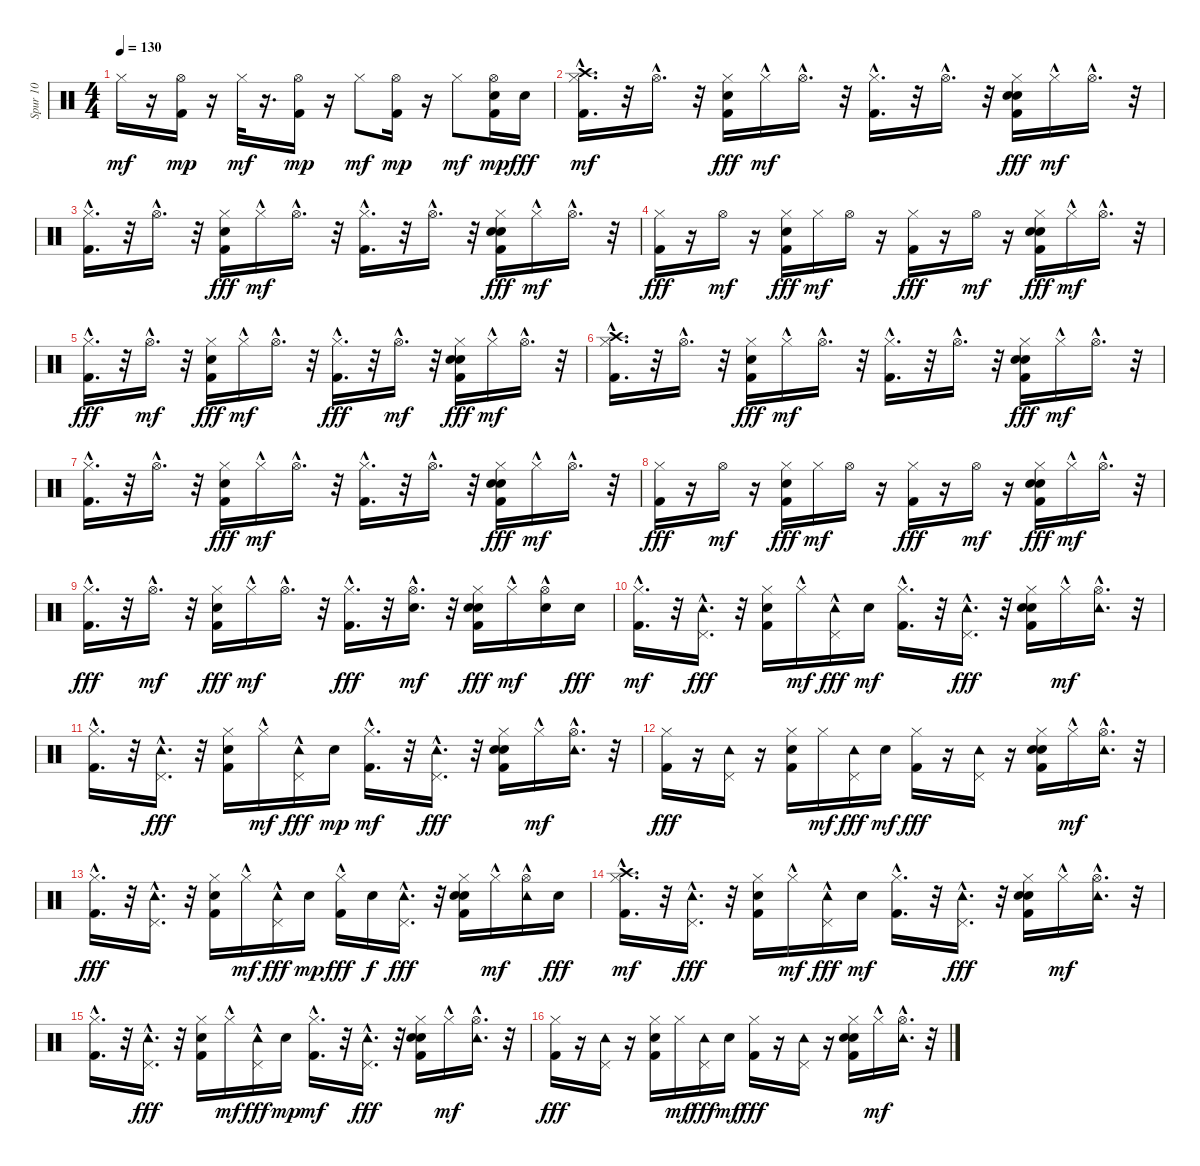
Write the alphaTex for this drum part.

\track ("Spur 10" "Spur 10") {instrument percussion}
\staff {score}
\articulation defaults
\ts (4 4)
\tempo 130
\clef neutral
\ks c "Hi-Hat (closed)".16{dy mf}
r.16 ("Kick (hit) 2" "Hi-Hat (open)").16{dy mp} r.16 "Hi-Hat (closed)".32{dy mf} r.16{d} ("Kick (hit) 2" "Hi-Hat (open)").16{dy mp} r.16 "Hi-Hat (closed)".8{dy mf} ("Kick (hit) 2" "Hi-Hat (open)").16{dy mp} r.16 "Hi-Hat (closed)".8{dy mf} ("Snare (hit) 2" "Kick (hit) 2" "Hi-Hat (open)").16{dy mp} "Snare (hit) 2".16{dy fff} |
("Crash high (hit)" "Kick (hit) 2" "Hi-Hat (closed)"{hac}).16{d dy mf} r.32 "Hi-Hat (open)"{hac}.16{d} r.32 ("Kick (hit) 2" "Hi-Hat (closed)" "Snare (hit) 2").16{dy fff} "Hi-Hat (closed)"{hac}.16{dy mf} "Hi-Hat (open)"{hac}.16{d} r.32 ("Kick (hit) 2" "Hi-Hat (closed)"{hac}).16{d} r.32 "Hi-Hat (open)"{hac}.16{d} r.32 ("Kick (hit) 2" "Hi-Hat (closed)" "Hand Clap (hit)" "Snare (hit) 2").16{dy fff} "Hi-Hat (closed)"{hac}.16{dy mf} "Hi-Hat (open)"{hac}.16{d} r.32 |
("Kick (hit) 2" "Hi-Hat (closed)"{hac}).16{d} r.32 "Hi-Hat (open)"{hac}.16{d} r.32 ("Hi-Hat (closed)" "Snare (hit) 2" "Kick (hit) 2").16{dy fff} "Hi-Hat (closed)"{hac}.16{dy mf} "Hi-Hat (open)"{hac}.16{d} r.32 ("Kick (hit) 2" "Hi-Hat (closed)"{hac}).16{d} r.32 "Hi-Hat (open)"{hac}.16{d} r.32 ("Hi-Hat (closed)" "Kick (hit) 2" "Snare (hit) 2" "Hand Clap (hit)").16{dy fff} "Hi-Hat (closed)"{hac}.16{dy mf} "Hi-Hat (open)"{hac}.16{d} r.32 |
("Hi-Hat (closed)" "Kick (hit) 2").16{dy fff} r.16 "Hi-Hat (open)".16{dy mf} r.16 ("Snare (hit) 2" "Hi-Hat (closed)" "Kick (hit) 2").16{dy fff} "Hi-Hat (closed)".16{dy mf} "Hi-Hat (open)".16 r.16 ("Hi-Hat (closed)" "Kick (hit) 2").16{dy fff} r.16 "Hi-Hat (open)".16{dy mf} r.16 ("Snare (hit) 2" "Hand Clap (hit)" "Hi-Hat (closed)" "Kick (hit) 2").16{dy fff} "Hi-Hat (closed)"{hac}.16{dy mf} "Hi-Hat (open)"{hac}.16{d} r.32 |
("Hi-Hat (closed)"{hac} "Kick (hit) 2").16{d dy fff} r.32 "Hi-Hat (open)"{hac}.16{d dy mf} r.32 ("Hi-Hat (closed)" "Snare (hit) 2" "Kick (hit) 2").16{dy fff} "Hi-Hat (closed)"{hac}.16{dy mf} "Hi-Hat (open)"{hac}.16{d} r.32 ("Hi-Hat (closed)"{hac} "Kick (hit) 2").16{d dy fff} r.32 "Hi-Hat (open)"{hac}.16{d dy mf} r.32 ("Hand Clap (hit)" "Snare (hit) 2" "Hi-Hat (closed)" "Kick (hit) 2").16{dy fff} "Hi-Hat (closed)"{hac}.16{dy mf} "Hi-Hat (open)"{hac}.16{d} r.32 |
("Crash high (hit)" "Kick (hit) 2" "Hi-Hat (closed)"{hac}).16{d} r.32 "Hi-Hat (open)"{hac}.16{d} r.32 ("Kick (hit) 2" "Hi-Hat (closed)" "Snare (hit) 2").16{dy fff} "Hi-Hat (closed)"{hac}.16{dy mf} "Hi-Hat (open)"{hac}.16{d} r.32 ("Kick (hit) 2" "Hi-Hat (closed)"{hac}).16{d} r.32 "Hi-Hat (open)"{hac}.16{d} r.32 ("Kick (hit) 2" "Hi-Hat (closed)" "Hand Clap (hit)" "Snare (hit) 2").16{dy fff} "Hi-Hat (closed)"{hac}.16{dy mf} "Hi-Hat (open)"{hac}.16{d} r.32 |
("Kick (hit) 2" "Hi-Hat (closed)"{hac}).16{d} r.32 "Hi-Hat (open)"{hac}.16{d} r.32 ("Hi-Hat (closed)" "Snare (hit) 2" "Kick (hit) 2").16{dy fff} "Hi-Hat (closed)"{hac}.16{dy mf} "Hi-Hat (open)"{hac}.16{d} r.32 ("Kick (hit) 2" "Hi-Hat (closed)"{hac}).16{d} r.32 "Hi-Hat (open)"{hac}.16{d} r.32 ("Hi-Hat (closed)" "Kick (hit) 2" "Snare (hit) 2" "Hand Clap (hit)").16{dy fff} "Hi-Hat (closed)"{hac}.16{dy mf} "Hi-Hat (open)"{hac}.16{d} r.32 |
("Hi-Hat (closed)" "Kick (hit) 2").16{dy fff} r.16 "Hi-Hat (open)".16{dy mf} r.16 ("Snare (hit) 2" "Hi-Hat (closed)" "Kick (hit) 2").16{dy fff} "Hi-Hat (closed)".16{dy mf} "Hi-Hat (open)".16 r.16 ("Hi-Hat (closed)" "Kick (hit) 2").16{dy fff} r.16 "Hi-Hat (open)".16{dy mf} r.16 ("Snare (hit) 2" "Hand Clap (hit)" "Hi-Hat (closed)" "Kick (hit) 2").16{dy fff} "Hi-Hat (closed)"{hac}.16{dy mf} "Hi-Hat (open)"{hac}.16{d} r.32 |
("Hi-Hat (closed)"{hac} "Kick (hit) 2").16{d dy fff} r.32 "Hi-Hat (open)"{hac}.16{d dy mf} r.32 ("Hi-Hat (closed)" "Snare (hit) 2" "Kick (hit) 2").16{dy fff} "Hi-Hat (closed)"{hac}.16{dy mf} "Hi-Hat (open)"{hac}.16{d} r.32 ("Hi-Hat (closed)"{hac} "Kick (hit) 2").16{d dy fff} r.32 ("Snare (hit) 2" "Hi-Hat (open)"{hac}).16{d dy mf} r.32 ("Hand Clap (hit)" "Snare (hit) 2" "Hi-Hat (closed)" "Kick (hit) 2").16{dy fff} "Hi-Hat (closed)"{hac}.16{dy mf} ("Snare (hit) 2" "Hi-Hat (open)"{hac}).16 "Snare (hit) 2".16{dy fff} |
("Kick (hit) 2" "Hi-Hat (closed)"{hac}).16{d dy mf} r.32 ("Tambourine (hit)"{hac} "Pedal Hi-Hat (hit)"{hac}).16{d dy fff} r.32 ("Kick (hit) 2" "Hi-Hat (closed)" "Snare (hit) 2").16 "Hi-Hat (closed)"{hac}.16{dy mf} ("Tambourine (hit)"{hac} "Pedal Hi-Hat (hit)"{hac}).16{dy fff} "Electric Snare (hit)".16{dy mf} ("Kick (hit) 2" "Hi-Hat (closed)"{hac}).16{d} r.32 ("Tambourine (hit)"{hac} "Pedal Hi-Hat (hit)"{hac}).16{d dy fff} r.32 ("Kick (hit) 2" "Hi-Hat (closed)" "Hand Clap (hit)" "Snare (hit) 2").16 "Hi-Hat (closed)"{hac}.16{dy mf} ("Tambourine (hit)"{hac} "Hi-Hat (open)"{hac}).16{d} r.32 |
("Kick (hit) 2" "Hi-Hat (closed)"{hac}).16{d} r.32 ("Tambourine (hit)"{hac} "Pedal Hi-Hat (hit)"{hac}).16{d dy fff} r.32 ("Hi-Hat (closed)" "Snare (hit) 2" "Kick (hit) 2").16 "Hi-Hat (closed)"{hac}.16{dy mf} ("Tambourine (hit)"{hac} "Pedal Hi-Hat (hit)"{hac}).16{dy fff} "Electric Snare (hit)".16{dy mp} ("Kick (hit) 2" "Hi-Hat (closed)"{hac}).16{d dy mf} r.32 ("Tambourine (hit)"{hac} "Pedal Hi-Hat (hit)"{hac}).16{d dy fff} r.32 ("Hi-Hat (closed)" "Kick (hit) 2" "Snare (hit) 2" "Hand Clap (hit)").16 "Hi-Hat (closed)"{hac}.16{dy mf} ("Tambourine (hit)"{hac} "Hi-Hat (open)"{hac}).16{d} r.32 |
("Hi-Hat (closed)" "Kick (hit) 2").16{dy fff} r.16 ("Tambourine (hit)" "Pedal Hi-Hat (hit)").16 r.16 ("Snare (hit) 2" "Hi-Hat (closed)" "Kick (hit) 2").16 "Hi-Hat (closed)".16{dy mf} ("Tambourine (hit)" "Pedal Hi-Hat (hit)").16{dy fff} "Electric Snare (hit)".16{dy mf} ("Hi-Hat (closed)" "Kick (hit) 2").16{dy fff} r.16 ("Tambourine (hit)" "Pedal Hi-Hat (hit)").16 r.16 ("Snare (hit) 2" "Hand Clap (hit)" "Hi-Hat (closed)" "Kick (hit) 2").16 "Hi-Hat (closed)"{hac}.16{dy mf} ("Tambourine (hit)" "Hi-Hat (open)"{hac}).16{d} r.32 |
("Hi-Hat (closed)"{hac} "Kick (hit) 2").16{d dy fff} r.32 ("Tambourine (hit)"{hac} "Pedal Hi-Hat (hit)"{hac}).16{d} r.32 ("Hi-Hat (closed)" "Snare (hit) 2" "Kick (hit) 2").16 "Hi-Hat (closed)"{hac}.16{dy mf} ("Tambourine (hit)"{hac} "Pedal Hi-Hat (hit)"{hac}).16{dy fff} "Electric Snare (hit)".16{dy mp} ("Hi-Hat (closed)"{hac} "Kick (hit) 2").16{dy fff} "Snare (hit) 2".16{dy f} ("Tambourine (hit)"{hac} "Pedal Hi-Hat (hit)"{hac}).16{d dy fff} r.32 ("Hand Clap (hit)" "Snare (hit) 2" "Hi-Hat (closed)" "Kick (hit) 2").16 "Hi-Hat (closed)"{hac}.16{dy mf} ("Tambourine (hit)"{hac} "Hi-Hat (open)"{hac}).16 "Snare (hit) 2".16{dy fff} |
("Crash high (hit)" "Kick (hit) 2" "Hi-Hat (closed)"{hac}).16{d dy mf} r.32 ("Tambourine (hit)"{hac} "Pedal Hi-Hat (hit)"{hac}).16{d dy fff} r.32 ("Kick (hit) 2" "Hi-Hat (closed)" "Snare (hit) 2").16 "Hi-Hat (closed)"{hac}.16{dy mf} ("Tambourine (hit)"{hac} "Pedal Hi-Hat (hit)"{hac}).16{dy fff} "Electric Snare (hit)".16{dy mf} ("Kick (hit) 2" "Hi-Hat (closed)"{hac}).16{d} r.32 ("Tambourine (hit)"{hac} "Pedal Hi-Hat (hit)"{hac}).16{d dy fff} r.32 ("Kick (hit) 2" "Hi-Hat (closed)" "Hand Clap (hit)" "Snare (hit) 2").16 "Hi-Hat (closed)"{hac}.16{dy mf} ("Tambourine (hit)"{hac} "Hi-Hat (open)"{hac}).16{d} r.32 |
("Kick (hit) 2" "Hi-Hat (closed)"{hac}).16{d} r.32 ("Tambourine (hit)"{hac} "Pedal Hi-Hat (hit)"{hac}).16{d dy fff} r.32 ("Hi-Hat (closed)" "Snare (hit) 2" "Kick (hit) 2").16 "Hi-Hat (closed)"{hac}.16{dy mf} ("Tambourine (hit)"{hac} "Pedal Hi-Hat (hit)"{hac}).16{dy fff} "Electric Snare (hit)".16{dy mp} ("Kick (hit) 2" "Hi-Hat (closed)"{hac}).16{d dy mf} r.32 ("Tambourine (hit)"{hac} "Pedal Hi-Hat (hit)"{hac}).16{d dy fff} r.32 ("Hi-Hat (closed)" "Kick (hit) 2" "Snare (hit) 2" "Hand Clap (hit)").16 "Hi-Hat (closed)"{hac}.16{dy mf} ("Tambourine (hit)"{hac} "Hi-Hat (open)"{hac}).16{d} r.32 |
("Hi-Hat (closed)" "Kick (hit) 2").16{dy fff} r.16 ("Tambourine (hit)" "Pedal Hi-Hat (hit)").16 r.16 ("Snare (hit) 2" "Hi-Hat (closed)" "Kick (hit) 2").16 "Hi-Hat (closed)".16{dy mf} ("Tambourine (hit)" "Pedal Hi-Hat (hit)").16{dy fff} "Electric Snare (hit)".16{dy mf} ("Hi-Hat (closed)" "Kick (hit) 2").16{dy fff} r.16 ("Tambourine (hit)" "Pedal Hi-Hat (hit)").16 r.16 ("Snare (hit) 2" "Hand Clap (hit)" "Hi-Hat (closed)" "Kick (hit) 2").16 "Hi-Hat (closed)"{hac}.16{dy mf} ("Tambourine (hit)" "Hi-Hat (open)"{hac}).16{d} r.32
